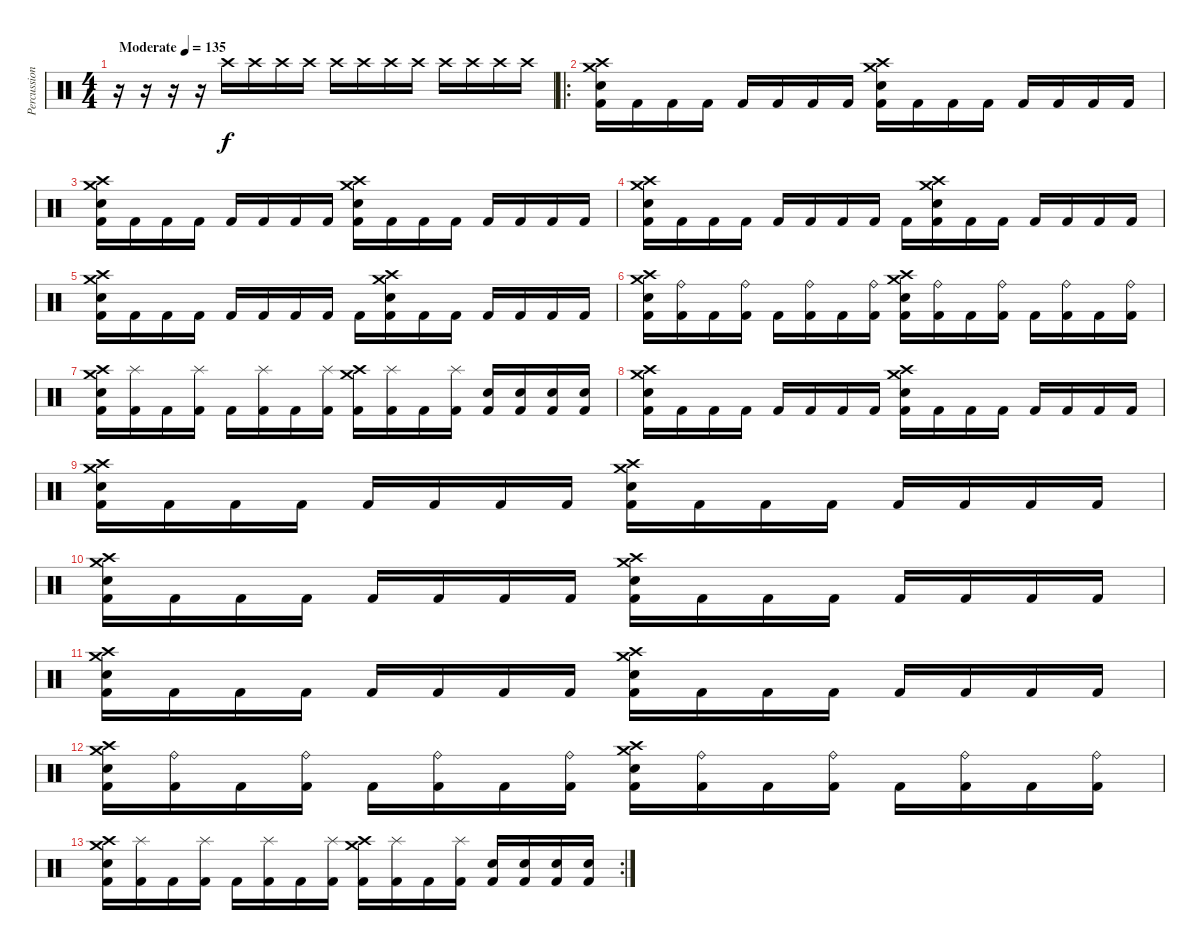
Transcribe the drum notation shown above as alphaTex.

\track ("Percussion" "Percussion") {instrument percussion}
\staff {score}
\articulation defaults
\ts (4 4)
\tempo (135 "Moderate")
\clef neutral
\ks c
r.16{dy f} r.16 r.16 r.16 "Crash high (hit)".16 "Crash high (hit)".16 "Crash high (hit)".16 "Crash high (hit)".16 "Crash high (hit)".16 "Crash high (hit)".16 "Crash high (hit)".16 "Crash high (hit)".16 "Crash high (hit)".16 "Crash high (hit)".16 "Crash high (hit)".16 "Crash high (hit)".16 |
\ro
("Crash high (hit)" "Crash medium (hit)" "Electric Snare (hit)" "Kick (hit) 2").16 "Kick (hit) 2".16 "Kick (hit) 2".16 "Kick (hit) 2".16 "Kick (hit) 2".16 "Kick (hit) 2".16 "Kick (hit) 2".16 "Kick (hit) 2".16 ("Crash high (hit)" "Crash medium (hit)" "Electric Snare (hit)" "Kick (hit) 2").16 "Kick (hit) 2".16 "Kick (hit) 2".16 "Kick (hit) 2".16 "Kick (hit) 2".16 "Kick (hit) 2".16 "Kick (hit) 2".16 "Kick (hit) 2".16 |
("Crash high (hit)" "Crash medium (hit)" "Electric Snare (hit)" "Kick (hit) 2").16 "Kick (hit) 2".16 "Kick (hit) 2".16 "Kick (hit) 2".16 "Kick (hit) 2".16 "Kick (hit) 2".16 "Kick (hit) 2".16 "Kick (hit) 2".16 ("Crash high (hit)" "Crash medium (hit)" "Electric Snare (hit)" "Kick (hit) 2").16 "Kick (hit) 2".16 "Kick (hit) 2".16 "Kick (hit) 2".16 "Kick (hit) 2".16 "Kick (hit) 2".16 "Kick (hit) 2".16 "Kick (hit) 2".16 |
("Crash high (hit)" "Crash medium (hit)" "Electric Snare (hit)" "Kick (hit) 2").16 "Kick (hit) 2".16 "Kick (hit) 2".16 "Kick (hit) 2".16 "Kick (hit) 2".16 "Kick (hit) 2".16 "Kick (hit) 2".16 "Kick (hit) 2".16 "Kick (hit) 2".16 ("Crash high (hit)" "Crash medium (hit)" "Electric Snare (hit)" "Kick (hit) 2").16 "Kick (hit) 2".16 "Kick (hit) 2".16 "Kick (hit) 2".16 "Kick (hit) 2".16 "Kick (hit) 2".16 "Kick (hit) 2".16 |
("Crash high (hit)" "Crash medium (hit)" "Electric Snare (hit)" "Kick (hit) 2").16 "Kick (hit) 2".16 "Kick (hit) 2".16 "Kick (hit) 2".16 "Kick (hit) 2".16 "Kick (hit) 2".16 "Kick (hit) 2".16 "Kick (hit) 2".16 "Kick (hit) 2".16 ("Crash high (hit)" "Crash medium (hit)" "Electric Snare (hit)" "Kick (hit) 2").16 "Kick (hit) 2".16 "Kick (hit) 2".16 "Kick (hit) 2".16 "Kick (hit) 2".16 "Kick (hit) 2".16 "Kick (hit) 2".16 |
("Crash high (hit)" "Crash medium (hit)" "Electric Snare (hit)" "Kick (hit) 2").16 ("Ride (bell)" "Kick (hit) 2").16 "Kick (hit) 2".16 ("Ride (bell)" "Kick (hit) 2").16 "Kick (hit) 2".16 ("Ride (bell)" "Kick (hit) 2").16 "Kick (hit) 2".16 ("Ride (bell)" "Kick (hit) 2").16 ("Crash high (hit)" "Crash medium (hit)" "Electric Snare (hit)" "Kick (hit) 2").16 ("Ride (bell)" "Kick (hit) 2").16 "Kick (hit) 2".16 ("Ride (bell)" "Kick (hit) 2").16 "Kick (hit) 2".16 ("Ride (bell)" "Kick (hit) 2").16 "Kick (hit) 2".16 ("Ride (bell)" "Kick (hit) 2").16 |
("Crash high (hit)" "Crash medium (hit)" "Electric Snare (hit)" "Kick (hit) 2").16 ("Splash (hit)" "Kick (hit) 2").16 "Kick (hit) 2".16 ("Splash (hit)" "Kick (hit) 2").16 "Kick (hit) 2".16 ("Splash (hit)" "Kick (hit) 2").16 "Kick (hit) 2".16 ("Splash (hit)" "Kick (hit) 2").16 ("Crash high (hit)" "Crash medium (hit)" "Kick (hit) 2").16 ("Splash (hit)" "Kick (hit) 2").16 "Kick (hit) 2".16 ("Splash (hit)" "Kick (hit) 2").16 ("Electric Snare (hit)" "Kick (hit) 2").16 ("Electric Snare (hit)" "Kick (hit) 2").16 ("Electric Snare (hit)" "Kick (hit) 2").16 ("Electric Snare (hit)" "Kick (hit) 2").16 |
("Crash high (hit)" "Crash medium (hit)" "Electric Snare (hit)" "Kick (hit) 2").16 "Kick (hit) 2".16 "Kick (hit) 2".16 "Kick (hit) 2".16 "Kick (hit) 2".16 "Kick (hit) 2".16 "Kick (hit) 2".16 "Kick (hit) 2".16 ("Crash high (hit)" "Crash medium (hit)" "Electric Snare (hit)" "Kick (hit) 2").16 "Kick (hit) 2".16 "Kick (hit) 2".16 "Kick (hit) 2".16 "Kick (hit) 2".16 "Kick (hit) 2".16 "Kick (hit) 2".16 "Kick (hit) 2".16 |
("Crash high (hit)" "Crash medium (hit)" "Electric Snare (hit)" "Kick (hit) 2").16 "Kick (hit) 2".16 "Kick (hit) 2".16 "Kick (hit) 2".16 "Kick (hit) 2".16 "Kick (hit) 2".16 "Kick (hit) 2".16 "Kick (hit) 2".16 ("Crash high (hit)" "Crash medium (hit)" "Electric Snare (hit)" "Kick (hit) 2").16 "Kick (hit) 2".16 "Kick (hit) 2".16 "Kick (hit) 2".16 "Kick (hit) 2".16 "Kick (hit) 2".16 "Kick (hit) 2".16 "Kick (hit) 2".16 |
("Crash high (hit)" "Crash medium (hit)" "Electric Snare (hit)" "Kick (hit) 2").16 "Kick (hit) 2".16 "Kick (hit) 2".16 "Kick (hit) 2".16 "Kick (hit) 2".16 "Kick (hit) 2".16 "Kick (hit) 2".16 "Kick (hit) 2".16 ("Crash high (hit)" "Crash medium (hit)" "Electric Snare (hit)" "Kick (hit) 2").16 "Kick (hit) 2".16 "Kick (hit) 2".16 "Kick (hit) 2".16 "Kick (hit) 2".16 "Kick (hit) 2".16 "Kick (hit) 2".16 "Kick (hit) 2".16 |
("Crash high (hit)" "Crash medium (hit)" "Electric Snare (hit)" "Kick (hit) 2").16 "Kick (hit) 2".16 "Kick (hit) 2".16 "Kick (hit) 2".16 "Kick (hit) 2".16 "Kick (hit) 2".16 "Kick (hit) 2".16 "Kick (hit) 2".16 ("Crash high (hit)" "Crash medium (hit)" "Electric Snare (hit)" "Kick (hit) 2").16 "Kick (hit) 2".16 "Kick (hit) 2".16 "Kick (hit) 2".16 "Kick (hit) 2".16 "Kick (hit) 2".16 "Kick (hit) 2".16 "Kick (hit) 2".16 |
("Crash high (hit)" "Crash medium (hit)" "Electric Snare (hit)" "Kick (hit) 2").16 ("Ride (bell)" "Kick (hit) 2").16 "Kick (hit) 2".16 ("Ride (bell)" "Kick (hit) 2").16 "Kick (hit) 2".16 ("Ride (bell)" "Kick (hit) 2").16 "Kick (hit) 2".16 ("Ride (bell)" "Kick (hit) 2").16 ("Crash high (hit)" "Crash medium (hit)" "Electric Snare (hit)" "Kick (hit) 2").16 ("Ride (bell)" "Kick (hit) 2").16 "Kick (hit) 2".16 ("Ride (bell)" "Kick (hit) 2").16 "Kick (hit) 2".16 ("Ride (bell)" "Kick (hit) 2").16 "Kick (hit) 2".16 ("Ride (bell)" "Kick (hit) 2").16 |
\rc 2
("Crash high (hit)" "Crash medium (hit)" "Electric Snare (hit)" "Kick (hit) 2").16 ("Splash (hit)" "Kick (hit) 2").16 "Kick (hit) 2".16 ("Splash (hit)" "Kick (hit) 2").16 "Kick (hit) 2".16 ("Splash (hit)" "Kick (hit) 2").16 "Kick (hit) 2".16 ("Splash (hit)" "Kick (hit) 2").16 ("Crash high (hit)" "Crash medium (hit)" "Kick (hit) 2").16 ("Splash (hit)" "Kick (hit) 2").16 "Kick (hit) 2".16 ("Splash (hit)" "Kick (hit) 2").16 ("Electric Snare (hit)" "Kick (hit) 2").16 ("Electric Snare (hit)" "Kick (hit) 2").16 ("Electric Snare (hit)" "Kick (hit) 2").16 ("Electric Snare (hit)" "Kick (hit) 2").16
